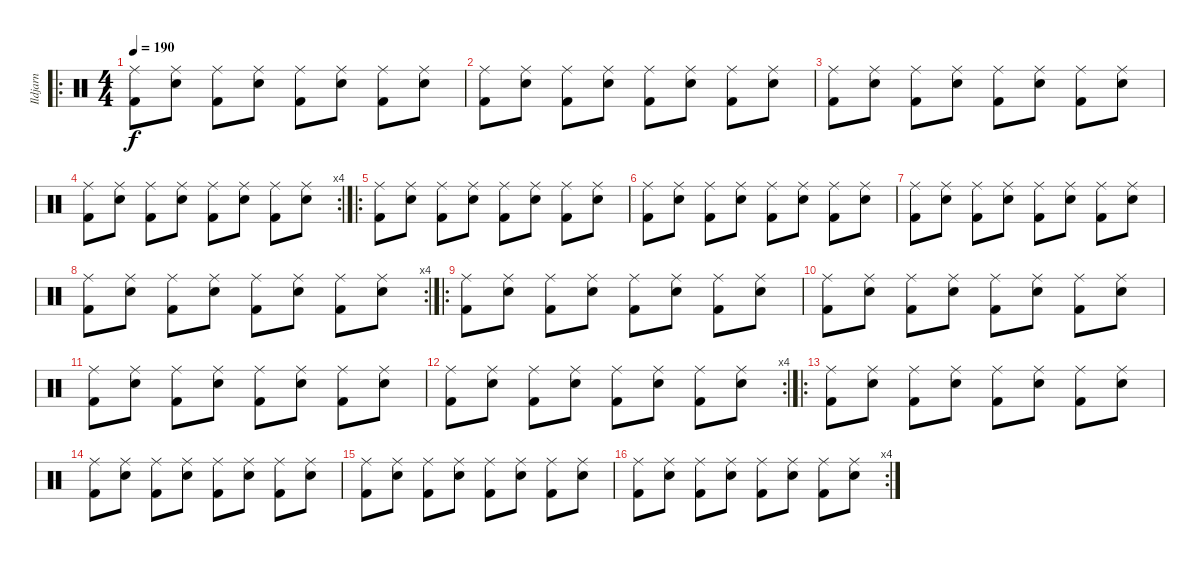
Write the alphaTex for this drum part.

\track ("Ildjarn" "Ildjarn") {instrument percussion}
\staff {score}
\articulation defaults
\ro
\ts (4 4)
\tempo 190
\clef neutral
\ks c
("Ride (middle)" "Kick (hit) 2").8{dy f} ("Ride (middle)" "Snare (hit) 2").8 ("Ride (middle)" "Kick (hit) 2").8 ("Ride (middle)" "Snare (hit) 2").8 ("Ride (middle)" "Kick (hit) 2").8 ("Ride (middle)" "Snare (hit) 2").8 ("Ride (middle)" "Kick (hit) 2").8 ("Ride (middle)" "Snare (hit) 2").8 |
("Ride (middle)" "Kick (hit) 2").8 ("Ride (middle)" "Snare (hit) 2").8 ("Ride (middle)" "Kick (hit) 2").8 ("Ride (middle)" "Snare (hit) 2").8 ("Ride (middle)" "Kick (hit) 2").8 ("Ride (middle)" "Snare (hit) 2").8 ("Ride (middle)" "Kick (hit) 2").8 ("Ride (middle)" "Snare (hit) 2").8 |
("Ride (middle)" "Kick (hit) 2").8 ("Ride (middle)" "Snare (hit) 2").8 ("Ride (middle)" "Kick (hit) 2").8 ("Ride (middle)" "Snare (hit) 2").8 ("Ride (middle)" "Kick (hit) 2").8 ("Ride (middle)" "Snare (hit) 2").8 ("Ride (middle)" "Kick (hit) 2").8 ("Ride (middle)" "Snare (hit) 2").8 |
\rc 4
("Ride (middle)" "Kick (hit) 2").8 ("Ride (middle)" "Snare (hit) 2").8 ("Ride (middle)" "Kick (hit) 2").8 ("Ride (middle)" "Snare (hit) 2").8 ("Ride (middle)" "Kick (hit) 2").8 ("Ride (middle)" "Snare (hit) 2").8 ("Ride (middle)" "Kick (hit) 2").8 ("Ride (middle)" "Snare (hit) 2").8 |
\ro
("Ride (middle)" "Kick (hit) 2").8 ("Ride (middle)" "Snare (hit) 2").8 ("Ride (middle)" "Kick (hit) 2").8 ("Ride (middle)" "Snare (hit) 2").8 ("Ride (middle)" "Kick (hit) 2").8 ("Ride (middle)" "Snare (hit) 2").8 ("Ride (middle)" "Kick (hit) 2").8 ("Ride (middle)" "Snare (hit) 2").8 |
("Ride (middle)" "Kick (hit) 2").8 ("Ride (middle)" "Snare (hit) 2").8 ("Ride (middle)" "Kick (hit) 2").8 ("Ride (middle)" "Snare (hit) 2").8 ("Ride (middle)" "Kick (hit) 2").8 ("Ride (middle)" "Snare (hit) 2").8 ("Ride (middle)" "Kick (hit) 2").8 ("Ride (middle)" "Snare (hit) 2").8 |
("Ride (middle)" "Kick (hit) 2").8 ("Ride (middle)" "Snare (hit) 2").8 ("Ride (middle)" "Kick (hit) 2").8 ("Ride (middle)" "Snare (hit) 2").8 ("Ride (middle)" "Kick (hit) 2").8 ("Ride (middle)" "Snare (hit) 2").8 ("Ride (middle)" "Kick (hit) 2").8 ("Ride (middle)" "Snare (hit) 2").8 |
\rc 4
("Ride (middle)" "Kick (hit) 2").8 ("Ride (middle)" "Snare (hit) 2").8 ("Ride (middle)" "Kick (hit) 2").8 ("Ride (middle)" "Snare (hit) 2").8 ("Ride (middle)" "Kick (hit) 2").8 ("Ride (middle)" "Snare (hit) 2").8 ("Ride (middle)" "Kick (hit) 2").8 ("Ride (middle)" "Snare (hit) 2").8 |
\ro
("Ride (middle)" "Kick (hit) 2").8 ("Ride (middle)" "Snare (hit) 2").8 ("Ride (middle)" "Kick (hit) 2").8 ("Ride (middle)" "Snare (hit) 2").8 ("Ride (middle)" "Kick (hit) 2").8 ("Ride (middle)" "Snare (hit) 2").8 ("Ride (middle)" "Kick (hit) 2").8 ("Ride (middle)" "Snare (hit) 2").8 |
("Ride (middle)" "Kick (hit) 2").8 ("Ride (middle)" "Snare (hit) 2").8 ("Ride (middle)" "Kick (hit) 2").8 ("Ride (middle)" "Snare (hit) 2").8 ("Ride (middle)" "Kick (hit) 2").8 ("Ride (middle)" "Snare (hit) 2").8 ("Ride (middle)" "Kick (hit) 2").8 ("Ride (middle)" "Snare (hit) 2").8 |
("Ride (middle)" "Kick (hit) 2").8 ("Ride (middle)" "Snare (hit) 2").8 ("Ride (middle)" "Kick (hit) 2").8 ("Ride (middle)" "Snare (hit) 2").8 ("Ride (middle)" "Kick (hit) 2").8 ("Ride (middle)" "Snare (hit) 2").8 ("Ride (middle)" "Kick (hit) 2").8 ("Ride (middle)" "Snare (hit) 2").8 |
\rc 4
("Ride (middle)" "Kick (hit) 2").8 ("Ride (middle)" "Snare (hit) 2").8 ("Ride (middle)" "Kick (hit) 2").8 ("Ride (middle)" "Snare (hit) 2").8 ("Ride (middle)" "Kick (hit) 2").8 ("Ride (middle)" "Snare (hit) 2").8 ("Ride (middle)" "Kick (hit) 2").8 ("Ride (middle)" "Snare (hit) 2").8 |
\ro
("Ride (middle)" "Kick (hit) 2").8 ("Ride (middle)" "Snare (hit) 2").8 ("Ride (middle)" "Kick (hit) 2").8 ("Ride (middle)" "Snare (hit) 2").8 ("Ride (middle)" "Kick (hit) 2").8 ("Ride (middle)" "Snare (hit) 2").8 ("Ride (middle)" "Kick (hit) 2").8 ("Ride (middle)" "Snare (hit) 2").8 |
("Ride (middle)" "Kick (hit) 2").8 ("Ride (middle)" "Snare (hit) 2").8 ("Ride (middle)" "Kick (hit) 2").8 ("Ride (middle)" "Snare (hit) 2").8 ("Ride (middle)" "Kick (hit) 2").8 ("Ride (middle)" "Snare (hit) 2").8 ("Ride (middle)" "Kick (hit) 2").8 ("Ride (middle)" "Snare (hit) 2").8 |
("Ride (middle)" "Kick (hit) 2").8 ("Ride (middle)" "Snare (hit) 2").8 ("Ride (middle)" "Kick (hit) 2").8 ("Ride (middle)" "Snare (hit) 2").8 ("Ride (middle)" "Kick (hit) 2").8 ("Ride (middle)" "Snare (hit) 2").8 ("Ride (middle)" "Kick (hit) 2").8 ("Ride (middle)" "Snare (hit) 2").8 |
\rc 4
("Ride (middle)" "Kick (hit) 2").8 ("Ride (middle)" "Snare (hit) 2").8 ("Ride (middle)" "Kick (hit) 2").8 ("Ride (middle)" "Snare (hit) 2").8 ("Ride (middle)" "Kick (hit) 2").8 ("Ride (middle)" "Snare (hit) 2").8 ("Ride (middle)" "Kick (hit) 2").8 ("Ride (middle)" "Snare (hit) 2").8
